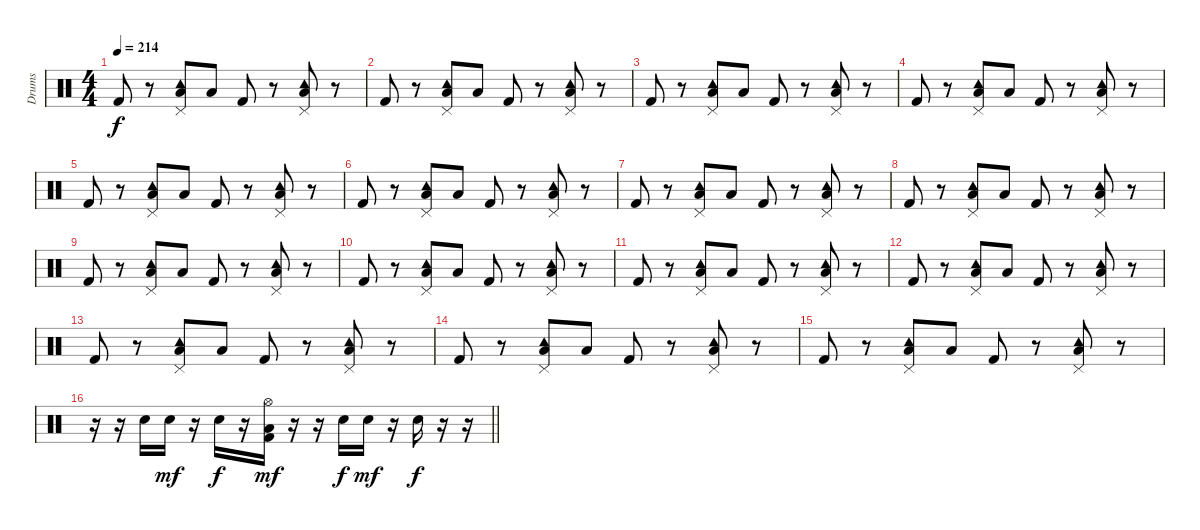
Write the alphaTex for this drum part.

\track ("Drums" "Drums") {instrument percussion}
\staff {score}
\articulation defaults
\ts (4 4)
\tempo 214
\clef neutral
\ks c "Kick (hit) 2".8{dy f}
r.8 ("Pedal Hi-Hat (hit)" "Tambourine (hit)" "Low Tom (hit)").8 "Low Tom (hit)".8 "Kick (hit) 2".8 r.8 ("Pedal Hi-Hat (hit)" "Tambourine (hit)" "Low Tom (hit)").8 r.8 |
"Kick (hit) 2".8 r.8 ("Pedal Hi-Hat (hit)" "Tambourine (hit)" "Low Tom (hit)").8 "Low Tom (hit)".8 "Kick (hit) 2".8 r.8 ("Pedal Hi-Hat (hit)" "Tambourine (hit)" "Low Tom (hit)").8 r.8 |
"Kick (hit) 2".8 r.8 ("Pedal Hi-Hat (hit)" "Tambourine (hit)" "Low Tom (hit)").8 "Low Tom (hit)".8 "Kick (hit) 2".8 r.8 ("Pedal Hi-Hat (hit)" "Tambourine (hit)" "Low Tom (hit)").8 r.8 |
"Kick (hit) 2".8 r.8 ("Pedal Hi-Hat (hit)" "Tambourine (hit)" "Low Tom (hit)").8 "Low Tom (hit)".8 "Kick (hit) 2".8 r.8 ("Pedal Hi-Hat (hit)" "Tambourine (hit)" "Low Tom (hit)").8 r.8 |
"Kick (hit) 2".8 r.8 ("Pedal Hi-Hat (hit)" "Tambourine (hit)" "Low Tom (hit)").8 "Low Tom (hit)".8 "Kick (hit) 2".8 r.8 ("Pedal Hi-Hat (hit)" "Tambourine (hit)" "Low Tom (hit)").8 r.8 |
"Kick (hit) 2".8 r.8 ("Pedal Hi-Hat (hit)" "Tambourine (hit)" "Low Tom (hit)").8 "Low Tom (hit)".8 "Kick (hit) 2".8 r.8 ("Pedal Hi-Hat (hit)" "Tambourine (hit)" "Low Tom (hit)").8 r.8 |
"Kick (hit) 2".8 r.8 ("Pedal Hi-Hat (hit)" "Tambourine (hit)" "Low Tom (hit)").8 "Low Tom (hit)".8 "Kick (hit) 2".8 r.8 ("Pedal Hi-Hat (hit)" "Tambourine (hit)" "Low Tom (hit)").8 r.8 |
"Kick (hit) 2".8 r.8 ("Pedal Hi-Hat (hit)" "Tambourine (hit)" "Low Tom (hit)").8 "Low Tom (hit)".8 "Kick (hit) 2".8 r.8 ("Pedal Hi-Hat (hit)" "Tambourine (hit)" "Low Tom (hit)").8 r.8 |
"Kick (hit) 2".8 r.8 ("Pedal Hi-Hat (hit)" "Tambourine (hit)" "Low Tom (hit)").8 "Low Tom (hit)".8 "Kick (hit) 2".8 r.8 ("Pedal Hi-Hat (hit)" "Tambourine (hit)" "Low Tom (hit)").8 r.8 |
"Kick (hit) 2".8 r.8 ("Pedal Hi-Hat (hit)" "Tambourine (hit)" "Low Tom (hit)").8 "Low Tom (hit)".8 "Kick (hit) 2".8 r.8 ("Pedal Hi-Hat (hit)" "Tambourine (hit)" "Low Tom (hit)").8 r.8 |
"Kick (hit) 2".8 r.8 ("Pedal Hi-Hat (hit)" "Tambourine (hit)" "Low Tom (hit)").8 "Low Tom (hit)".8 "Kick (hit) 2".8 r.8 ("Pedal Hi-Hat (hit)" "Tambourine (hit)" "Low Tom (hit)").8 r.8 |
"Kick (hit) 2".8 r.8 ("Pedal Hi-Hat (hit)" "Tambourine (hit)" "Low Tom (hit)").8 "Low Tom (hit)".8 "Kick (hit) 2".8 r.8 ("Pedal Hi-Hat (hit)" "Tambourine (hit)" "Low Tom (hit)").8 r.8 |
"Kick (hit) 2".8 r.8 ("Pedal Hi-Hat (hit)" "Tambourine (hit)" "Low Tom (hit)").8 "Low Tom (hit)".8 "Kick (hit) 2".8 r.8 ("Pedal Hi-Hat (hit)" "Tambourine (hit)" "Low Tom (hit)").8 r.8 |
"Kick (hit) 2".8 r.8 ("Pedal Hi-Hat (hit)" "Tambourine (hit)" "Low Tom (hit)").8 "Low Tom (hit)".8 "Kick (hit) 2".8 r.8 ("Pedal Hi-Hat (hit)" "Tambourine (hit)" "Low Tom (hit)").8 r.8 |
"Kick (hit) 2".8 r.8 ("Pedal Hi-Hat (hit)" "Tambourine (hit)" "Low Tom (hit)").8 "Low Tom (hit)".8 "Kick (hit) 2".8 r.8 ("Pedal Hi-Hat (hit)" "Tambourine (hit)" "Low Tom (hit)").8 r.8 |
\barLineRight lightlight
r.16 r.16 "Snare (hit) 2".16 "Snare (hit) 2".16{dy mf} r.16 "Snare (hit) 2".16{dy f} r.16 ("Hi-Hat (open)" "Low Tom (hit)" "Kick (hit) 2").16{dy mf} r.16 r.16 "Snare (hit) 2".16{dy f} "Snare (hit) 2".16{dy mf} r.16 "Snare (hit) 2".16{dy f} r.16 r.16
